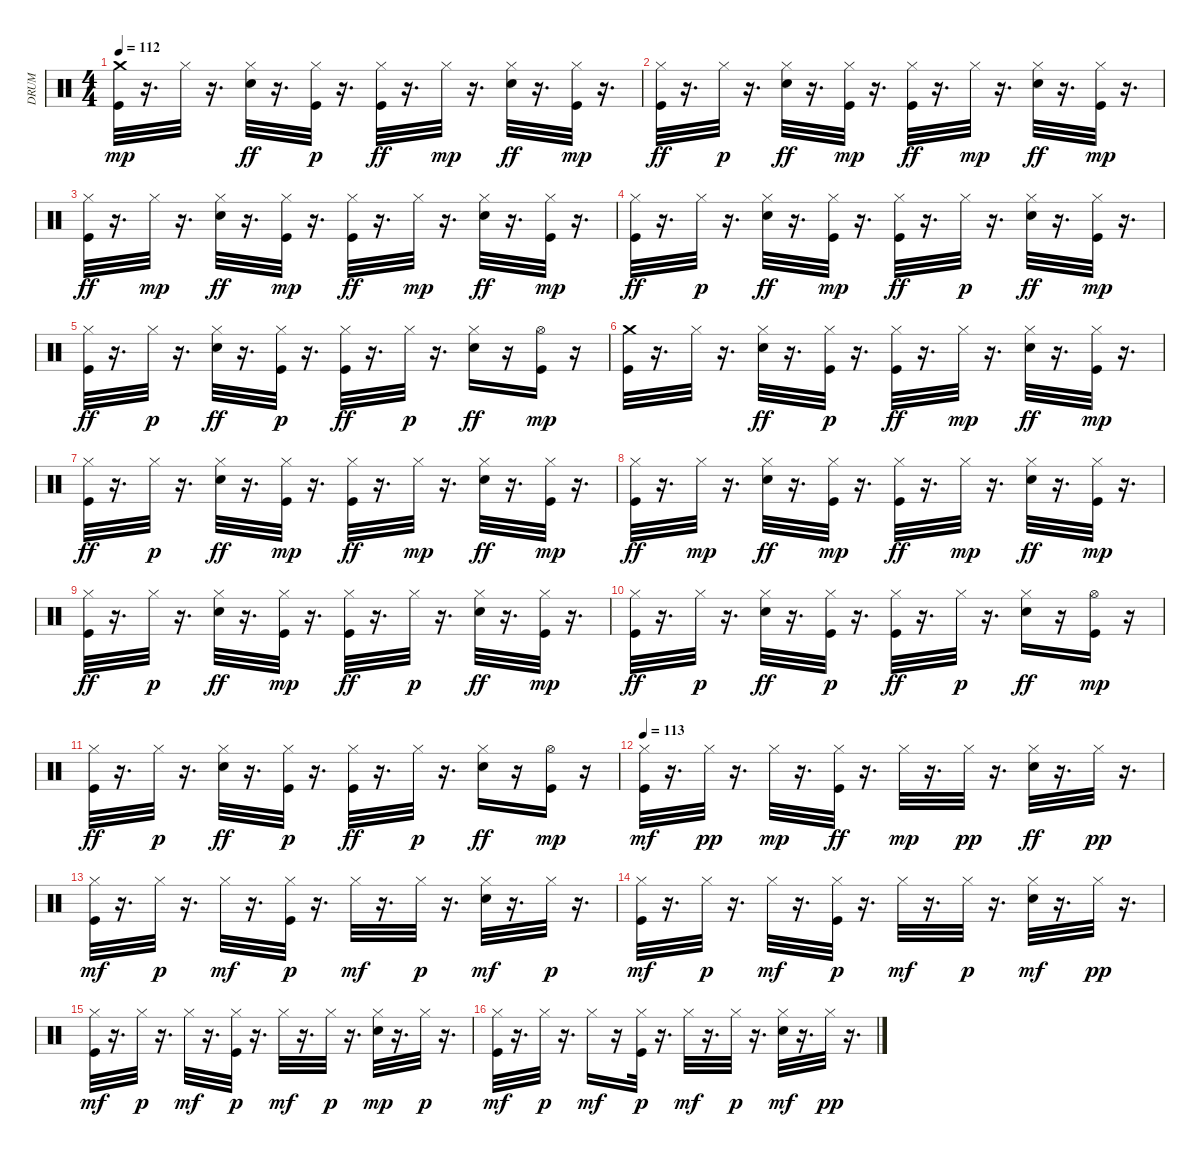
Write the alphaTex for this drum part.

\track ("DRUM" "DRUM") {instrument percussion}
\staff {score}
\articulation defaults
\ts (4 4)
\tempo 112
\clef neutral
\ks c
("Kick (hit)" "Crash medium (hit)").32{dy mp} r.16{d} "Hi-Hat (closed)".32 r.16{d} ("Hi-Hat (closed)" "Snare (hit) 2").32{dy ff} r.16{d} ("Hi-Hat (closed)" "Kick (hit)").32{dy p} r.16{d} ("Hi-Hat (closed)" "Kick (hit)").32{dy ff} r.16{d} "Hi-Hat (closed)".32{dy mp} r.16{d} ("Hi-Hat (closed)" "Snare (hit) 2").32{dy ff} r.16{d} ("Hi-Hat (closed)" "Kick (hit)").32{dy mp} r.16{d} |
("Hi-Hat (closed)" "Kick (hit)").32{dy ff} r.16{d} "Hi-Hat (closed)".32{dy p} r.16{d} ("Hi-Hat (closed)" "Snare (hit) 2").32{dy ff} r.16{d} ("Hi-Hat (closed)" "Kick (hit)").32{dy mp} r.16{d} ("Hi-Hat (closed)" "Kick (hit)").32{dy ff} r.16{d} "Hi-Hat (closed)".32{dy mp} r.16{d} ("Hi-Hat (closed)" "Snare (hit) 2").32{dy ff} r.16{d} ("Hi-Hat (closed)" "Kick (hit)").32{dy mp} r.16{d} |
("Hi-Hat (closed)" "Kick (hit)").32{dy ff} r.16{d} "Hi-Hat (closed)".32{dy mp} r.16{d} ("Hi-Hat (closed)" "Snare (hit) 2").32{dy ff} r.16{d} ("Hi-Hat (closed)" "Kick (hit)").32{dy mp} r.16{d} ("Hi-Hat (closed)" "Kick (hit)").32{dy ff} r.16{d} "Hi-Hat (closed)".32{dy mp} r.16{d} ("Hi-Hat (closed)" "Snare (hit) 2").32{dy ff} r.16{d} ("Hi-Hat (closed)" "Kick (hit)").32{dy mp} r.16{d} |
("Hi-Hat (closed)" "Kick (hit)").32{dy ff} r.16{d} "Hi-Hat (closed)".32{dy p} r.16{d} ("Hi-Hat (closed)" "Snare (hit) 2").32{dy ff} r.16{d} ("Hi-Hat (closed)" "Kick (hit)").32{dy mp} r.16{d} ("Hi-Hat (closed)" "Kick (hit)").32{dy ff} r.16{d} "Hi-Hat (closed)".32{dy p} r.16{d} ("Hi-Hat (closed)" "Snare (hit) 2").32{dy ff} r.16{d} ("Hi-Hat (closed)" "Kick (hit)").32{dy mp} r.16{d} |
("Hi-Hat (closed)" "Kick (hit)").32{dy ff} r.16{d} "Hi-Hat (closed)".32{dy p} r.16{d} ("Hi-Hat (closed)" "Snare (hit) 2").32{dy ff} r.16{d} ("Hi-Hat (closed)" "Kick (hit)").32{dy p} r.16{d} ("Hi-Hat (closed)" "Kick (hit)").32{dy ff} r.16{d} "Hi-Hat (closed)".32{dy p} r.16{d} ("Hi-Hat (closed)" "Snare (hit) 2").16{dy ff} r.16 ("Hi-Hat (open)" "Kick (hit)").16{dy mp} r.16 |
("Kick (hit)" "Crash medium (hit)").32 r.16{d} "Hi-Hat (closed)".32 r.16{d} ("Hi-Hat (closed)" "Snare (hit) 2").32{dy ff} r.16{d} ("Hi-Hat (closed)" "Kick (hit)").32{dy p} r.16{d} ("Hi-Hat (closed)" "Kick (hit)").32{dy ff} r.16{d} "Hi-Hat (closed)".32{dy mp} r.16{d} ("Hi-Hat (closed)" "Snare (hit) 2").32{dy ff} r.16{d} ("Hi-Hat (closed)" "Kick (hit)").32{dy mp} r.16{d} |
("Hi-Hat (closed)" "Kick (hit)").32{dy ff} r.16{d} "Hi-Hat (closed)".32{dy p} r.16{d} ("Hi-Hat (closed)" "Snare (hit) 2").32{dy ff} r.16{d} ("Hi-Hat (closed)" "Kick (hit)").32{dy mp} r.16{d} ("Hi-Hat (closed)" "Kick (hit)").32{dy ff} r.16{d} "Hi-Hat (closed)".32{dy mp} r.16{d} ("Hi-Hat (closed)" "Snare (hit) 2").32{dy ff} r.16{d} ("Hi-Hat (closed)" "Kick (hit)").32{dy mp} r.16{d} |
("Hi-Hat (closed)" "Kick (hit)").32{dy ff} r.16{d} "Hi-Hat (closed)".32{dy mp} r.16{d} ("Hi-Hat (closed)" "Snare (hit) 2").32{dy ff} r.16{d} ("Hi-Hat (closed)" "Kick (hit)").32{dy mp} r.16{d} ("Hi-Hat (closed)" "Kick (hit)").32{dy ff} r.16{d} "Hi-Hat (closed)".32{dy mp} r.16{d} ("Hi-Hat (closed)" "Snare (hit) 2").32{dy ff} r.16{d} ("Hi-Hat (closed)" "Kick (hit)").32{dy mp} r.16{d} |
("Hi-Hat (closed)" "Kick (hit)").32{dy ff} r.16{d} "Hi-Hat (closed)".32{dy p} r.16{d} ("Hi-Hat (closed)" "Snare (hit) 2").32{dy ff} r.16{d} ("Hi-Hat (closed)" "Kick (hit)").32{dy mp} r.16{d} ("Hi-Hat (closed)" "Kick (hit)").32{dy ff} r.16{d} "Hi-Hat (closed)".32{dy p} r.16{d} ("Hi-Hat (closed)" "Snare (hit) 2").32{dy ff} r.16{d} ("Hi-Hat (closed)" "Kick (hit)").32{dy mp} r.16{d} |
("Hi-Hat (closed)" "Kick (hit)").32{dy ff} r.16{d} "Hi-Hat (closed)".32{dy p} r.16{d} ("Hi-Hat (closed)" "Snare (hit) 2").32{dy ff} r.16{d} ("Hi-Hat (closed)" "Kick (hit)").32{dy p} r.16{d} ("Hi-Hat (closed)" "Kick (hit)").32{dy ff} r.16{d} "Hi-Hat (closed)".32{dy p} r.16{d} ("Hi-Hat (closed)" "Snare (hit) 2").16{dy ff} r.16 ("Hi-Hat (open)" "Kick (hit)").16{dy mp} r.16 |
("Hi-Hat (closed)" "Kick (hit)").32{dy ff} r.16{d} "Hi-Hat (closed)".32{dy p} r.16{d} ("Hi-Hat (closed)" "Snare (hit) 2").32{dy ff} r.16{d} ("Hi-Hat (closed)" "Kick (hit)").32{dy p} r.16{d} ("Hi-Hat (closed)" "Kick (hit)").32{dy ff} r.16{d} "Hi-Hat (closed)".32{dy p} r.16{d} ("Hi-Hat (closed)" "Snare (hit) 2").16{dy ff} r.16 ("Hi-Hat (open)" "Kick (hit)").16{dy mp} r.16 |
\tempo 113
("Kick (hit)" "Hi-Hat (closed)").32{dy mf} r.16{d} "Hi-Hat (closed)".32{dy pp} r.16{d} "Hi-Hat (closed)".32{dy mp} r.16{d} ("Hi-Hat (closed)" "Kick (hit)").32{dy ff} r.16{d} "Hi-Hat (closed)".32{dy mp} r.16{d} "Hi-Hat (closed)".32{dy pp} r.16{d} ("Hi-Hat (closed)" "Snare (hit) 2").32{dy ff} r.16{d} "Hi-Hat (closed)".32{dy pp} r.16{d} |
("Kick (hit)" "Hi-Hat (closed)").32{dy mf} r.16{d} "Hi-Hat (closed)".32{dy p} r.16{d} "Hi-Hat (closed)".32{dy mf} r.16{d} ("Kick (hit)" "Hi-Hat (closed)").32{dy p} r.16{d} "Hi-Hat (closed)".32{dy mf} r.16{d} "Hi-Hat (closed)".32{dy p} r.16{d} ("Snare (hit) 2" "Hi-Hat (closed)").32{dy mf} r.16{d} "Hi-Hat (closed)".32{dy p} r.16{d} |
("Kick (hit)" "Hi-Hat (closed)").32{dy mf} r.16{d} "Hi-Hat (closed)".32{dy p} r.16{d} "Hi-Hat (closed)".32{dy mf} r.16{d} ("Kick (hit)" "Hi-Hat (closed)").32{dy p} r.16{d} "Hi-Hat (closed)".32{dy mf} r.16{d} "Hi-Hat (closed)".32{dy p} r.16{d} ("Snare (hit) 2" "Hi-Hat (closed)").32{dy mf} r.16{d} "Hi-Hat (closed)".32{dy pp} r.16{d} |
("Kick (hit)" "Hi-Hat (closed)").32{dy mf} r.16{d} "Hi-Hat (closed)".32{dy p} r.16{d} "Hi-Hat (closed)".32{dy mf} r.16{d} ("Kick (hit)" "Hi-Hat (closed)").32{dy p} r.16{d} "Hi-Hat (closed)".32{dy mf} r.16{d} "Hi-Hat (closed)".32{dy p} r.16{d} ("Snare (hit) 2" "Hi-Hat (closed)").32{dy mp} r.16{d} "Hi-Hat (closed)".32{dy p} r.16{d} |
("Kick (hit)" "Hi-Hat (closed)").32{dy mf} r.16{d} "Hi-Hat (closed)".32{dy p} r.16{d} "Hi-Hat (closed)".16{dy mf} r.16 ("Kick (hit)" "Hi-Hat (closed)").32{dy p} r.16{d} "Hi-Hat (closed)".32{dy mf} r.16{d} "Hi-Hat (closed)".32{dy p} r.16{d} ("Snare (hit) 2" "Hi-Hat (closed)").32{dy mf} r.16{d} "Hi-Hat (closed)".32{dy pp} r.16{d}
